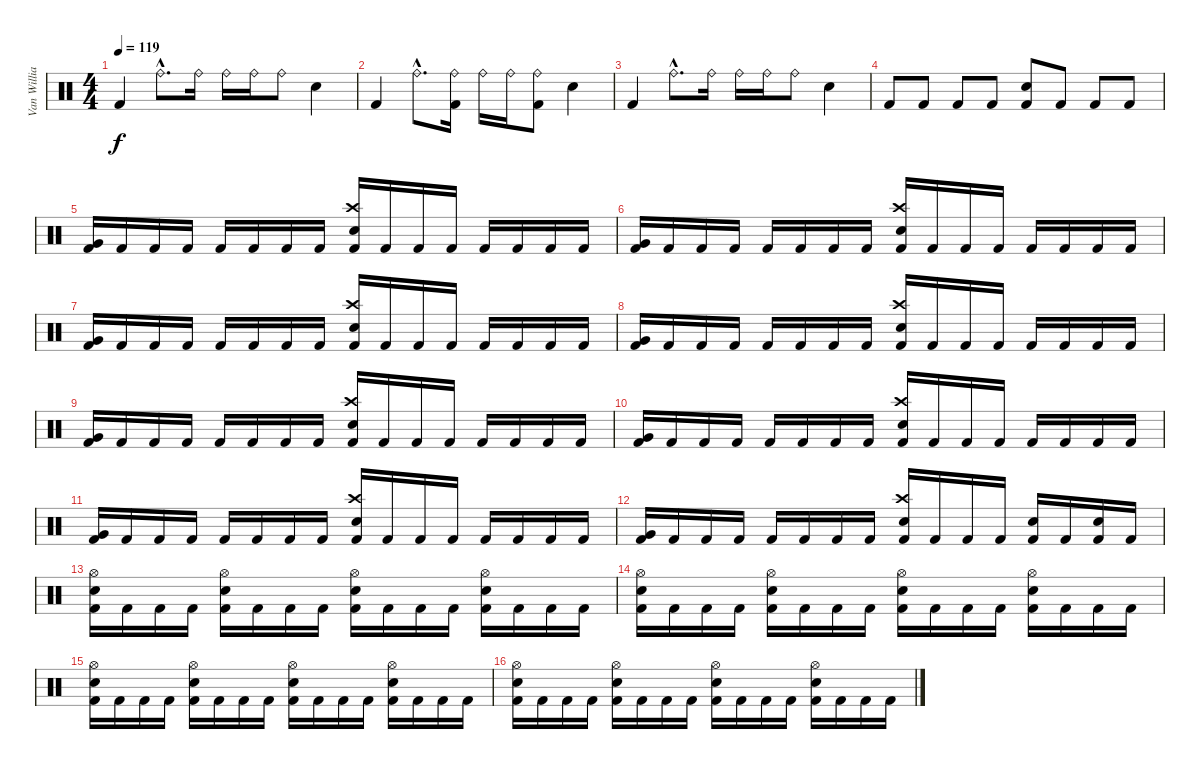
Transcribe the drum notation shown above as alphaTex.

\track ("Van Williams" "Van Willia") {instrument percussion}
\staff {score}
\articulation defaults
\ts (4 4)
\tempo 119
\clef neutral
\ks c "Kick (hit) 2".4{dy f} "Ride (bell)"{hac}.8{d} "Ride (bell)".16 "Ride (bell)".16 "Ride (bell)".16 "Ride (bell)".8 "Electric Snare (hit)".4
|
"Kick (hit) 2".4 "Ride (bell)"{hac}.8{d} ("Ride (bell)" "Kick (hit) 2").16 "Ride (bell)".16 "Ride (bell)".16 ("Ride (bell)" "Kick (hit) 2").8 "Electric Snare (hit)".4 |
"Kick (hit) 2".4 "Ride (bell)"{hac}.8{d} "Ride (bell)".16 "Ride (bell)".16 "Ride (bell)".16 "Ride (bell)".8 "Electric Snare (hit)".4 |
"Kick (hit) 2".8 "Kick (hit) 2".8 "Kick (hit) 2".8 "Kick (hit) 2".8 ("Electric Snare (hit)" "Kick (hit) 2").8 "Kick (hit) 2".8 "Kick (hit) 2".8 "Kick (hit) 2".8 |
("Very Low Tom (hit)" "Kick (hit) 2").16 "Kick (hit) 2".16 "Kick (hit) 2".16 "Kick (hit) 2".16 "Kick (hit) 2".16 "Kick (hit) 2".16 "Kick (hit) 2".16 "Kick (hit) 2".16 ("Crash high (hit)" "Snare (hit) 2" "Kick (hit) 2").16 "Kick (hit) 2".16 "Kick (hit) 2".16 "Kick (hit) 2".16 "Kick (hit) 2".16 "Kick (hit) 2".16 "Kick (hit) 2".16 "Kick (hit) 2".16 |
("Very Low Tom (hit)" "Kick (hit) 2").16 "Kick (hit) 2".16 "Kick (hit) 2".16 "Kick (hit) 2".16 "Kick (hit) 2".16 "Kick (hit) 2".16 "Kick (hit) 2".16 "Kick (hit) 2".16 ("Crash high (hit)" "Snare (hit) 2" "Kick (hit) 2").16 "Kick (hit) 2".16 "Kick (hit) 2".16 "Kick (hit) 2".16 "Kick (hit) 2".16 "Kick (hit) 2".16 "Kick (hit) 2".16 "Kick (hit) 2".16 |
("Very Low Tom (hit)" "Kick (hit) 2").16 "Kick (hit) 2".16 "Kick (hit) 2".16 "Kick (hit) 2".16 "Kick (hit) 2".16 "Kick (hit) 2".16 "Kick (hit) 2".16 "Kick (hit) 2".16 ("Crash high (hit)" "Snare (hit) 2" "Kick (hit) 2").16 "Kick (hit) 2".16 "Kick (hit) 2".16 "Kick (hit) 2".16 "Kick (hit) 2".16 "Kick (hit) 2".16 "Kick (hit) 2".16 "Kick (hit) 2".16 |
("Very Low Tom (hit)" "Kick (hit) 2").16 "Kick (hit) 2".16 "Kick (hit) 2".16 "Kick (hit) 2".16 "Kick (hit) 2".16 "Kick (hit) 2".16 "Kick (hit) 2".16 "Kick (hit) 2".16 ("Crash high (hit)" "Snare (hit) 2" "Kick (hit) 2").16 "Kick (hit) 2".16 "Kick (hit) 2".16 "Kick (hit) 2".16 "Kick (hit) 2".16 "Kick (hit) 2".16 "Kick (hit) 2".16 "Kick (hit) 2".16 |
("Very Low Tom (hit)" "Kick (hit) 2").16 "Kick (hit) 2".16 "Kick (hit) 2".16 "Kick (hit) 2".16 "Kick (hit) 2".16 "Kick (hit) 2".16 "Kick (hit) 2".16 "Kick (hit) 2".16 ("Crash high (hit)" "Snare (hit) 2" "Kick (hit) 2").16 "Kick (hit) 2".16 "Kick (hit) 2".16 "Kick (hit) 2".16 "Kick (hit) 2".16 "Kick (hit) 2".16 "Kick (hit) 2".16 "Kick (hit) 2".16 |
("Very Low Tom (hit)" "Kick (hit) 2").16 "Kick (hit) 2".16 "Kick (hit) 2".16 "Kick (hit) 2".16 "Kick (hit) 2".16 "Kick (hit) 2".16 "Kick (hit) 2".16 "Kick (hit) 2".16 ("Crash high (hit)" "Snare (hit) 2" "Kick (hit) 2").16 "Kick (hit) 2".16 "Kick (hit) 2".16 "Kick (hit) 2".16 "Kick (hit) 2".16 "Kick (hit) 2".16 "Kick (hit) 2".16 "Kick (hit) 2".16 |
("Very Low Tom (hit)" "Kick (hit) 2").16 "Kick (hit) 2".16 "Kick (hit) 2".16 "Kick (hit) 2".16 "Kick (hit) 2".16 "Kick (hit) 2".16 "Kick (hit) 2".16 "Kick (hit) 2".16 ("Crash high (hit)" "Snare (hit) 2" "Kick (hit) 2").16 "Kick (hit) 2".16 "Kick (hit) 2".16 "Kick (hit) 2".16 "Kick (hit) 2".16 "Kick (hit) 2".16 "Kick (hit) 2".16 "Kick (hit) 2".16 |
("Very Low Tom (hit)" "Kick (hit) 2").16 "Kick (hit) 2".16 "Kick (hit) 2".16 "Kick (hit) 2".16 "Kick (hit) 2".16 "Kick (hit) 2".16 "Kick (hit) 2".16 "Kick (hit) 2".16 ("Crash high (hit)" "Snare (hit) 2" "Kick (hit) 2").16 "Kick (hit) 2".16 "Kick (hit) 2".16 "Kick (hit) 2".16 ("Snare (hit) 2" "Kick (hit) 2").16 "Kick (hit) 2".16 ("Snare (hit) 2" "Kick (hit) 2").16 "Kick (hit) 2".16 |
("Hi-Hat (open)" "Electric Snare (hit)" "Kick (hit) 2").16 "Kick (hit) 2".16 "Kick (hit) 2".16 "Kick (hit) 2".16 ("Hi-Hat (open)" "Electric Snare (hit)" "Kick (hit) 2").16 "Kick (hit) 2".16 "Kick (hit) 2".16 "Kick (hit) 2".16 ("Hi-Hat (open)" "Electric Snare (hit)" "Kick (hit) 2").16 "Kick (hit) 2".16 "Kick (hit) 2".16 "Kick (hit) 2".16 ("Hi-Hat (open)" "Electric Snare (hit)" "Kick (hit) 2").16 "Kick (hit) 2".16 "Kick (hit) 2".16 "Kick (hit) 2".16 |
("Hi-Hat (open)" "Electric Snare (hit)" "Kick (hit) 2").16 "Kick (hit) 2".16 "Kick (hit) 2".16 "Kick (hit) 2".16 ("Hi-Hat (open)" "Electric Snare (hit)" "Kick (hit) 2").16 "Kick (hit) 2".16 "Kick (hit) 2".16 "Kick (hit) 2".16 ("Hi-Hat (open)" "Electric Snare (hit)" "Kick (hit) 2").16 "Kick (hit) 2".16 "Kick (hit) 2".16 "Kick (hit) 2".16 ("Hi-Hat (open)" "Electric Snare (hit)" "Kick (hit) 2").16 "Kick (hit) 2".16 "Kick (hit) 2".16 "Kick (hit) 2".16 |
("Hi-Hat (open)" "Electric Snare (hit)" "Kick (hit) 2").16 "Kick (hit) 2".16 "Kick (hit) 2".16 "Kick (hit) 2".16 ("Hi-Hat (open)" "Electric Snare (hit)" "Kick (hit) 2").16 "Kick (hit) 2".16 "Kick (hit) 2".16 "Kick (hit) 2".16 ("Hi-Hat (open)" "Electric Snare (hit)" "Kick (hit) 2").16 "Kick (hit) 2".16 "Kick (hit) 2".16 "Kick (hit) 2".16 ("Hi-Hat (open)" "Electric Snare (hit)" "Kick (hit) 2").16 "Kick (hit) 2".16 "Kick (hit) 2".16 "Kick (hit) 2".16 |
("Hi-Hat (open)" "Electric Snare (hit)" "Kick (hit) 2").16 "Kick (hit) 2".16 "Kick (hit) 2".16 "Kick (hit) 2".16 ("Hi-Hat (open)" "Electric Snare (hit)" "Kick (hit) 2").16 "Kick (hit) 2".16 "Kick (hit) 2".16 "Kick (hit) 2".16 ("Hi-Hat (open)" "Electric Snare (hit)" "Kick (hit) 2").16 "Kick (hit) 2".16 "Kick (hit) 2".16 "Kick (hit) 2".16 ("Hi-Hat (open)" "Electric Snare (hit)" "Kick (hit) 2").16 "Kick (hit) 2".16 "Kick (hit) 2".16 "Kick (hit) 2".16
